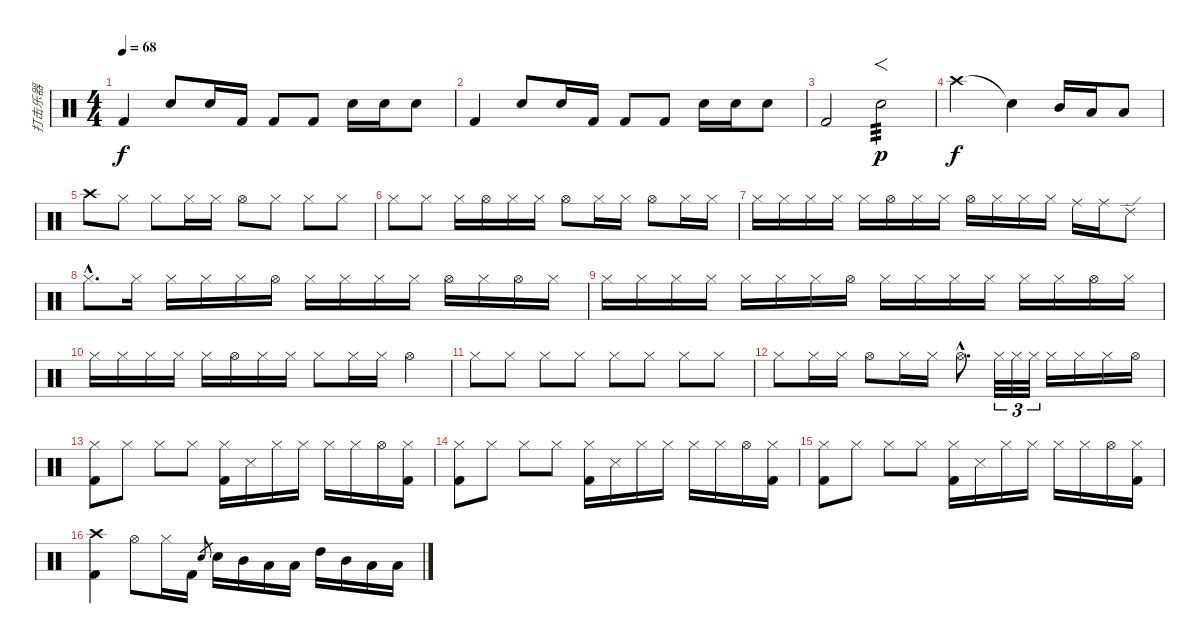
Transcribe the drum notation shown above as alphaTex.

\track ("打击乐器" "打击乐器") {instrument percussion}
\staff {score}
\articulation defaults
\ts (4 4)
\tempo 68
\clef neutral
\ks c "Kick (hit) 2".4{dy f} "Electric Snare (hit)".8 "Electric Snare (hit)".16 "Kick (hit) 2".16 "Kick (hit) 2".8 "Kick (hit) 2".8 "Electric Snare (hit)".16 "Electric Snare (hit)".16 "Electric Snare (hit)".8
|
"Kick (hit) 2".4 "Electric Snare (hit)".8 "Electric Snare (hit)".16 "Kick (hit) 2".16 "Kick (hit) 2".8 "Kick (hit) 2".8 "Electric Snare (hit)".16 "Electric Snare (hit)".16 "Electric Snare (hit)".8 |
"Kick (hit) 2".2 "Electric Snare (hit)".2{f tp 3 dy p} |
"Crash high (hit)".2{dy f} "Snare (hit)"{t}.4 "Mid Tom (hit)".16 "Low Tom (hit)".16 "Low Tom (hit)".8 |
"Crash high (hit)".8 "Hi-Hat (closed)".8 "Hi-Hat (closed)".8 "Hi-Hat (closed)".16 "Hi-Hat (closed)".16 "Hi-Hat (open)".8 "Hi-Hat (closed)".8 "Hi-Hat (closed)".8 "Hi-Hat (closed)".8 |
"Hi-Hat (closed)".8 "Hi-Hat (closed)".8 "Hi-Hat (closed)".16 "Hi-Hat (open)".16 "Hi-Hat (closed)".16 "Hi-Hat (closed)".16 "Hi-Hat (open)".8 "Hi-Hat (closed)".16 "Hi-Hat (closed)".16 "Hi-Hat (open)".8 "Hi-Hat (closed)".16 "Hi-Hat (closed)".16 |
"Hi-Hat (closed)".16 "Hi-Hat (closed)".16 "Hi-Hat (closed)".16 "Hi-Hat (closed)".16 "Hi-Hat (closed)".16 "Hi-Hat (open)".16 "Hi-Hat (closed)".16 "Hi-Hat (closed)".16 "Hi-Hat (open)".16 "Hi-Hat (closed)".16 "Hi-Hat (closed)".16 "Hi-Hat (closed)".16 "Ride (middle)".16 "Ride (middle)".16 "Ride (edge) 2".8 |
"Hi-Hat (closed)"{hac}.8{d} "Hi-Hat (closed)".16 "Hi-Hat (closed)".16 "Hi-Hat (closed)".16 "Hi-Hat (closed)".16 "Hi-Hat (open)".16 "Hi-Hat (closed)".16 "Hi-Hat (closed)".16 "Hi-Hat (closed)".16 "Hi-Hat (closed)".16 "Hi-Hat (open)".16 "Hi-Hat (closed)".16 "Hi-Hat (open)".16 "Hi-Hat (closed)".16 |
"Hi-Hat (closed)".16 "Hi-Hat (closed)".16 "Hi-Hat (closed)".16 "Hi-Hat (closed)".16 "Hi-Hat (closed)".16 "Hi-Hat (closed)".16 "Hi-Hat (closed)".16 "Hi-Hat (open)".16 "Hi-Hat (closed)".16 "Hi-Hat (closed)".16 "Hi-Hat (closed)".16 "Hi-Hat (closed)".16 "Hi-Hat (closed)".16 "Hi-Hat (closed)".16 "Hi-Hat (open)".16 "Hi-Hat (closed)".16 |
"Hi-Hat (closed)".16 "Hi-Hat (closed)".16 "Hi-Hat (closed)".16 "Hi-Hat (closed)".16 "Hi-Hat (closed)".16 "Hi-Hat (open)".16 "Hi-Hat (closed)".16 "Hi-Hat (closed)".16 "Hi-Hat (closed)".8 "Hi-Hat (closed)".16 "Hi-Hat (closed)".16 "Hi-Hat (open)".4 |
"Hi-Hat (closed)".8 "Hi-Hat (closed)".8 "Hi-Hat (closed)".8 "Hi-Hat (closed)".8 "Hi-Hat (closed)".8 "Hi-Hat (closed)".8 "Hi-Hat (closed)".8 "Hi-Hat (closed)".8 |
"Hi-Hat (closed)".8 "Hi-Hat (closed)".16 "Hi-Hat (closed)".16 "Hi-Hat (open)".8 "Hi-Hat (closed)".16 "Hi-Hat (closed)".16 "Hi-Hat (open)"{hac}.8{d} "Hi-Hat (closed)".32{tu (3 2)} "Hi-Hat (closed)".32{tu (3 2)} "Hi-Hat (closed)".32{tu (3 2)} "Hi-Hat (closed)".16 "Hi-Hat (closed)".16 "Hi-Hat (closed)".16 "Hi-Hat (open)".16 |
("Hi-Hat (closed)" "Kick (hit) 2").8 "Hi-Hat (closed)".8 "Hi-Hat (closed)".8 "Hi-Hat (closed)".8 ("Hi-Hat (closed)" "Kick (hit) 2").16 "Snare (side stick) 3".16 "Hi-Hat (closed)".16 "Hi-Hat (closed)".16 "Hi-Hat (closed)".16 "Hi-Hat (closed)".16 "Hi-Hat (open)".16 ("Hi-Hat (closed)" "Kick (hit) 2").16 |
("Hi-Hat (closed)" "Kick (hit) 2").8 "Hi-Hat (closed)".8 "Hi-Hat (closed)".8 "Hi-Hat (closed)".8 ("Hi-Hat (closed)" "Kick (hit) 2").16 "Snare (side stick) 3".16 "Hi-Hat (closed)".16 "Hi-Hat (closed)".16 "Hi-Hat (closed)".16 "Hi-Hat (closed)".16 "Hi-Hat (open)".16 ("Hi-Hat (closed)" "Kick (hit) 2").16 |
("Hi-Hat (closed)" "Kick (hit) 2").8 "Hi-Hat (closed)".8 "Hi-Hat (closed)".8 "Hi-Hat (closed)".8 ("Hi-Hat (closed)" "Kick (hit) 2").16 "Snare (side stick) 3".16 "Hi-Hat (closed)".16 "Hi-Hat (closed)".16 "Hi-Hat (closed)".16 "Hi-Hat (closed)".16 "Hi-Hat (open)".16 ("Hi-Hat (closed)" "Kick (hit) 2").16 |
("Crash high (hit)" "Kick (hit) 2").4 "Hi-Hat (open)".8 "Hi-Hat (closed)".16 "Kick (hit) 2".16 "Electric Snare (hit)".8{gr} "Electric Snare (hit)".16 "Mid Tom (hit)".16 "Low Tom (hit)".16 "Low Tom (hit)".16 "High Tom (hit)".16 "Mid Tom (hit)".16 "Low Tom (hit)".16 "Low Tom (hit)".16
